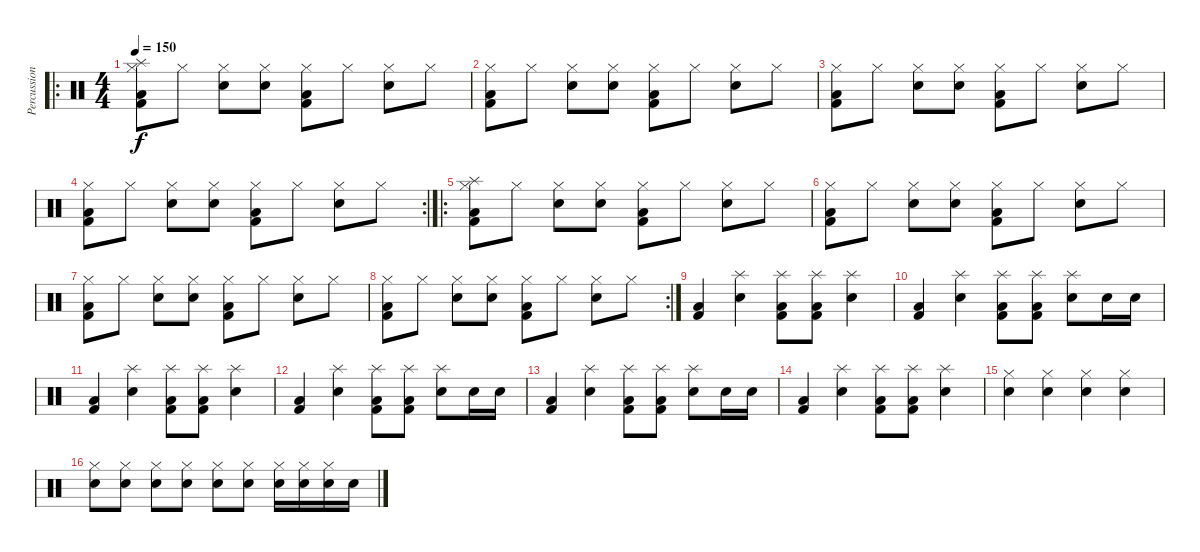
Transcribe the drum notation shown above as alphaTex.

\track ("Percussions" "Percussion") {instrument percussion}
\staff {score}
\articulation defaults
\ro
\ts (4 4)
\tempo 150
\clef neutral
\ks c
("Splash (hit)" "Low Floor Tom (hit)" "Kick (hit) 2" "Hi-Hat (closed)").8{dy f} "Hi-Hat (closed)".8 ("Electric Snare (hit)" "Hi-Hat (closed)").8 ("Electric Snare (hit)" "Hi-Hat (closed)").8 ("Low Floor Tom (hit)" "Kick (hit) 2" "Hi-Hat (closed)").8 "Hi-Hat (closed)".8 ("Electric Snare (hit)" "Hi-Hat (closed)").8 "Hi-Hat (closed)".8 |
("Low Floor Tom (hit)" "Kick (hit) 2" "Hi-Hat (closed)").8 "Hi-Hat (closed)".8 ("Electric Snare (hit)" "Hi-Hat (closed)").8 ("Electric Snare (hit)" "Hi-Hat (closed)").8 ("Low Floor Tom (hit)" "Kick (hit) 2" "Hi-Hat (closed)").8 "Hi-Hat (closed)".8 ("Electric Snare (hit)" "Hi-Hat (closed)").8 "Hi-Hat (closed)".8 |
("Low Floor Tom (hit)" "Kick (hit) 2" "Hi-Hat (closed)").8 "Hi-Hat (closed)".8 ("Electric Snare (hit)" "Hi-Hat (closed)").8 ("Electric Snare (hit)" "Hi-Hat (closed)").8 ("Low Floor Tom (hit)" "Kick (hit) 2" "Hi-Hat (closed)").8 "Hi-Hat (closed)".8 ("Electric Snare (hit)" "Hi-Hat (closed)").8 "Hi-Hat (closed)".8 |
\rc 2
("Low Floor Tom (hit)" "Kick (hit) 2" "Hi-Hat (closed)").8 "Hi-Hat (closed)".8 ("Electric Snare (hit)" "Hi-Hat (closed)").8 ("Electric Snare (hit)" "Hi-Hat (closed)").8 ("Low Floor Tom (hit)" "Kick (hit) 2" "Hi-Hat (closed)").8 "Hi-Hat (closed)".8 ("Electric Snare (hit)" "Hi-Hat (closed)").8 "Hi-Hat (closed)".8 |
\ro
("Splash (hit)" "Low Floor Tom (hit)" "Kick (hit) 2" "Hi-Hat (closed)").8 "Hi-Hat (closed)".8 ("Electric Snare (hit)" "Hi-Hat (closed)").8 ("Electric Snare (hit)" "Hi-Hat (closed)").8 ("Low Floor Tom (hit)" "Kick (hit) 2" "Hi-Hat (closed)").8 "Hi-Hat (closed)".8 ("Electric Snare (hit)" "Hi-Hat (closed)").8 "Hi-Hat (closed)".8 |
("Low Floor Tom (hit)" "Kick (hit) 2" "Hi-Hat (closed)").8 "Hi-Hat (closed)".8 ("Electric Snare (hit)" "Hi-Hat (closed)").8 ("Electric Snare (hit)" "Hi-Hat (closed)").8 ("Low Floor Tom (hit)" "Kick (hit) 2" "Hi-Hat (closed)").8 "Hi-Hat (closed)".8 ("Electric Snare (hit)" "Hi-Hat (closed)").8 "Hi-Hat (closed)".8 |
("Low Floor Tom (hit)" "Kick (hit) 2" "Hi-Hat (closed)").8 "Hi-Hat (closed)".8 ("Electric Snare (hit)" "Hi-Hat (closed)").8 ("Electric Snare (hit)" "Hi-Hat (closed)").8 ("Low Floor Tom (hit)" "Kick (hit) 2" "Hi-Hat (closed)").8 "Hi-Hat (closed)".8 ("Electric Snare (hit)" "Hi-Hat (closed)").8 "Hi-Hat (closed)".8 |
\rc 2
("Low Floor Tom (hit)" "Kick (hit) 2" "Hi-Hat (closed)").8 "Hi-Hat (closed)".8 ("Electric Snare (hit)" "Hi-Hat (closed)").8 ("Electric Snare (hit)" "Hi-Hat (closed)").8 ("Low Floor Tom (hit)" "Kick (hit) 2" "Hi-Hat (closed)").8 "Hi-Hat (closed)".8 ("Electric Snare (hit)" "Hi-Hat (closed)").8 "Hi-Hat (closed)".8 |
("Low Floor Tom (hit)" "Kick (hit) 2").4 ("Splash (hit)" "Electric Snare (hit)").4 ("Splash (hit)" "Low Floor Tom (hit)" "Kick (hit) 2").8 ("Splash (hit)" "Low Floor Tom (hit)" "Kick (hit) 2").8 ("Splash (hit)" "Electric Snare (hit)").4 |
("Low Floor Tom (hit)" "Kick (hit) 2").4 ("Splash (hit)" "Electric Snare (hit)").4 ("Splash (hit)" "Low Floor Tom (hit)" "Kick (hit) 2").8 ("Splash (hit)" "Low Floor Tom (hit)" "Kick (hit) 2").8 ("Splash (hit)" "Electric Snare (hit)").8 "Electric Snare (hit)".16 "Snare (hit) 2".16 |
("Low Floor Tom (hit)" "Kick (hit) 2").4 ("Splash (hit)" "Electric Snare (hit)").4 ("Splash (hit)" "Low Floor Tom (hit)" "Kick (hit) 2").8 ("Splash (hit)" "Low Floor Tom (hit)" "Kick (hit) 2").8 ("Splash (hit)" "Electric Snare (hit)").4 |
("Low Floor Tom (hit)" "Kick (hit) 2").4 ("Splash (hit)" "Electric Snare (hit)").4 ("Splash (hit)" "Low Floor Tom (hit)" "Kick (hit) 2").8 ("Splash (hit)" "Low Floor Tom (hit)" "Kick (hit) 2").8 ("Splash (hit)" "Electric Snare (hit)").8 "Electric Snare (hit)".16 "Snare (hit) 2".16 |
("Low Floor Tom (hit)" "Kick (hit) 2").4 ("Splash (hit)" "Electric Snare (hit)").4 ("Splash (hit)" "Low Floor Tom (hit)" "Kick (hit) 2").8 ("Splash (hit)" "Low Floor Tom (hit)" "Kick (hit) 2").8 ("Splash (hit)" "Electric Snare (hit)").8 "Electric Snare (hit)".16 "Snare (hit) 2".16 |
("Low Floor Tom (hit)" "Kick (hit) 2").4 ("Splash (hit)" "Electric Snare (hit)").4 ("Splash (hit)" "Low Floor Tom (hit)" "Kick (hit) 2").8 ("Splash (hit)" "Low Floor Tom (hit)" "Kick (hit) 2").8 ("Splash (hit)" "Electric Snare (hit)").4 |
("Electric Snare (hit)" "Hi-Hat (closed)").4 ("Electric Snare (hit)" "Hi-Hat (closed)").4 ("Electric Snare (hit)" "Hi-Hat (closed)").4 ("Electric Snare (hit)" "Hi-Hat (closed)").4 |
("Electric Snare (hit)" "Hi-Hat (closed)").8 ("Electric Snare (hit)" "Hi-Hat (closed)").8 ("Electric Snare (hit)" "Hi-Hat (closed)").8 ("Electric Snare (hit)" "Hi-Hat (closed)").8 ("Electric Snare (hit)" "Hi-Hat (closed)").8 ("Electric Snare (hit)" "Hi-Hat (closed)").8 ("Electric Snare (hit)" "Hi-Hat (closed)").16 ("Electric Snare (hit)" "Hi-Hat (closed)").16 ("Electric Snare (hit)" "Hi-Hat (closed)").16 "Electric Snare (hit)".16
